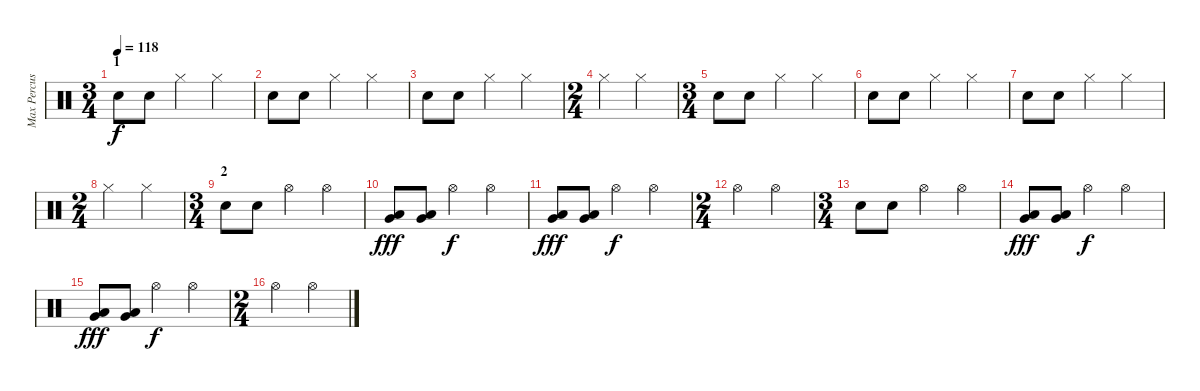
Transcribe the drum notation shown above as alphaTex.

\track ("Max Percussion" "Max Percus") {instrument percussion}
\staff {score}
\articulation defaults
\ts (3 4)
\section ("" "1")
\tempo 118
\clef neutral
\ks c "Snare (hit) 2".8{dy f} "Snare (hit) 2".8 "Hi-Hat (closed)".4 "Hi-Hat (closed)".4
|
"Snare (hit) 2".8 "Snare (hit) 2".8 "Hi-Hat (closed)".4 "Hi-Hat (closed)".4 |
"Snare (hit) 2".8 "Snare (hit) 2".8 "Hi-Hat (closed)".4 "Hi-Hat (closed)".4 |
\ts (2 4)
"Hi-Hat (closed)".4 "Hi-Hat (closed)".4 |
\ts (3 4)
"Snare (hit) 2".8 "Snare (hit) 2".8 "Hi-Hat (closed)".4 "Hi-Hat (closed)".4 |
"Snare (hit) 2".8 "Snare (hit) 2".8 "Hi-Hat (closed)".4 "Hi-Hat (closed)".4 |
"Snare (hit) 2".8 "Snare (hit) 2".8 "Hi-Hat (closed)".4 "Hi-Hat (closed)".4 |
\ts (2 4)
"Hi-Hat (closed)".4 "Hi-Hat (closed)".4 |
\ts (3 4)
\section ("" "2")
"Snare (hit) 2".8 "Snare (hit) 2".8 "Hi-Hat (open)".4 "Hi-Hat (open)".4 |
("Low Tom (hit)" "Very Low Tom (hit)").8{dy fff} ("Low Tom (hit)" "Very Low Tom (hit)").8 "Hi-Hat (open)".4{dy f} "Hi-Hat (open)".4 |
("Very Low Tom (hit)" "Low Floor Tom (hit)").8{dy fff} ("Very Low Tom (hit)" "Low Floor Tom (hit)").8 "Hi-Hat (open)".4{dy f} "Hi-Hat (open)".4 |
\ts (2 4)
"Hi-Hat (open)".4 "Hi-Hat (open)".4 |
\ts (3 4)
"Snare (hit) 2".8 "Snare (hit) 2".8 "Hi-Hat (open)".4 "Hi-Hat (open)".4 |
("Low Tom (hit)" "Very Low Tom (hit)").8{dy fff} ("Low Tom (hit)" "Very Low Tom (hit)").8 "Hi-Hat (open)".4{dy f} "Hi-Hat (open)".4 |
("Very Low Tom (hit)" "Low Floor Tom (hit)").8{dy fff} ("Very Low Tom (hit)" "Low Floor Tom (hit)").8 "Hi-Hat (open)".4{dy f} "Hi-Hat (open)".4 |
\ts (2 4)
"Hi-Hat (open)".4 "Hi-Hat (open)".4
